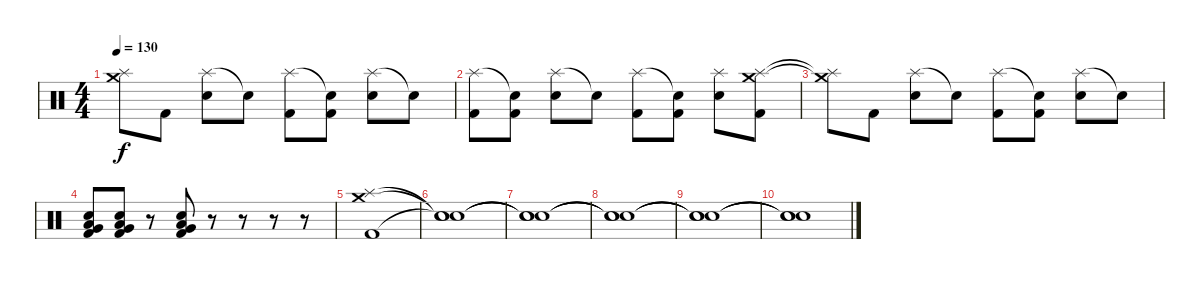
\track (" " " ") {solo instrument percussion}
\staff {score}
\articulation defaults
\ts (4 4)
\tempo 130
\clef neutral
\ks c
("Crash medium (hit)"{t} "Splash (hit)"{t}).8{dy f} "Kick (hit) 2".8 ("Splash (hit)" "Electric Snare (hit)").8 "Snare (hit)"{t}.8 ("Splash (hit)" "Kick (hit) 2").8 ("Snare (hit)"{t} "Kick (hit) 2").8 ("Splash (hit)" "Electric Snare (hit)").8 "Snare (hit)"{t}.8 |
("Splash (hit)" "Kick (hit) 2").8 ("Snare (hit)"{t} "Kick (hit) 2").8 ("Splash (hit)" "Electric Snare (hit)").8 "Snare (hit)"{t}.8 ("Splash (hit)" "Kick (hit) 2").8 ("Snare (hit)"{t} "Kick (hit) 2").8 ("Splash (hit)" "Electric Snare (hit)").8 ("Crash medium (hit)" "Splash (hit)" "Kick (hit) 2").8 |
("Crash medium (hit)"{t} "Splash (hit)"{t}).8 "Kick (hit) 2".8 ("Splash (hit)" "Electric Snare (hit)").8 "Snare (hit)"{t}.8 ("Splash (hit)" "Kick (hit) 2").8 ("Snare (hit)"{t} "Kick (hit) 2").8 ("Splash (hit)" "Electric Snare (hit)").8 "Snare (hit)"{t}.8 |
("Electric Snare (hit)" "Low Floor Tom (hit)" "Very Low Tom (hit)" "Kick (hit) 2").8 ("Electric Snare (hit)" "Low Floor Tom (hit)" "Very Low Tom (hit)" "Kick (hit) 2").8 r.8 ("Electric Snare (hit)" "Low Floor Tom (hit)" "Very Low Tom (hit)" "Kick (hit) 2").8 r.8 r.8 r.8 r.8 |
("Splash (hit)" "Crash medium (hit)" "Kick (hit) 2").1 |
("Snare (hit)"{t} "Snare (hit)"{t} "Snare (hit)"{t}).1 |
("Snare (hit)"{t} "Snare (hit)"{t} "Snare (hit)"{t}).1 |
("Snare (hit)"{t} "Snare (hit)"{t} "Snare (hit)"{t}).1 |
("Snare (hit)"{t} "Snare (hit)"{t} "Snare (hit)"{t}).1 |
("Snare (hit)"{t} "Snare (hit)"{t} "Snare (hit)"{t}).1
